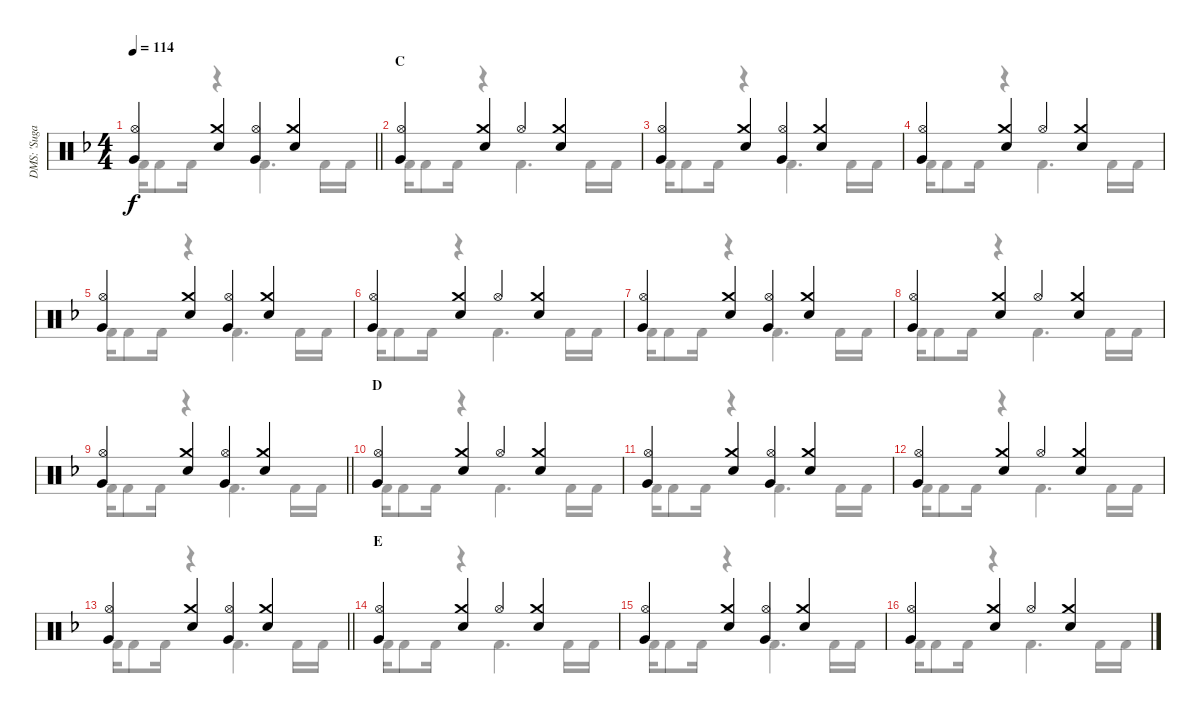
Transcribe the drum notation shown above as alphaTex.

\track ("DMS: 'Sugarfoot' Moffett" "DMS: 'Suga") {instrument percussion}
\staff {score}
\articulation defaults
\voice
\ts (4 4)
\tempo 114
\clef neutral
\barLineRight lightlight
\ks f
("Hi-Hat (open)" "Very Low Tom (hit)").4{dy f} ("Crash medium (hit)" "Snare (hit) 2").4 ("Hi-Hat (open)" "Very Low Tom (hit)").4 ("Crash medium (hit)" "Snare (hit) 2").4 |
\section ("" "C")
("Hi-Hat (open)" "Very Low Tom (hit)").4 ("Crash medium (hit)" "Snare (hit) 2").4 "Hi-Hat (open)".4 ("Crash medium (hit)" "Snare (hit) 2").4 |
("Hi-Hat (open)" "Very Low Tom (hit)").4 ("Crash medium (hit)" "Snare (hit) 2").4 ("Hi-Hat (open)" "Very Low Tom (hit)").4 ("Crash medium (hit)" "Snare (hit) 2").4 |
("Hi-Hat (open)" "Very Low Tom (hit)").4 ("Crash medium (hit)" "Snare (hit) 2").4 "Hi-Hat (open)".4 ("Crash medium (hit)" "Snare (hit) 2").4 |
("Hi-Hat (open)" "Very Low Tom (hit)").4 ("Crash medium (hit)" "Snare (hit) 2").4 ("Hi-Hat (open)" "Very Low Tom (hit)").4 ("Crash medium (hit)" "Snare (hit) 2").4 |
("Hi-Hat (open)" "Very Low Tom (hit)").4 ("Crash medium (hit)" "Snare (hit) 2").4 "Hi-Hat (open)".4 ("Crash medium (hit)" "Snare (hit) 2").4 |
("Hi-Hat (open)" "Very Low Tom (hit)").4 ("Crash medium (hit)" "Snare (hit) 2").4 ("Hi-Hat (open)" "Very Low Tom (hit)").4 ("Crash medium (hit)" "Snare (hit) 2").4 |
("Hi-Hat (open)" "Very Low Tom (hit)").4 ("Crash medium (hit)" "Snare (hit) 2").4 "Hi-Hat (open)".4 ("Crash medium (hit)" "Snare (hit) 2").4 |
\barLineRight lightlight
("Hi-Hat (open)" "Very Low Tom (hit)").4 ("Crash medium (hit)" "Snare (hit) 2").4 ("Hi-Hat (open)" "Very Low Tom (hit)").4 ("Crash medium (hit)" "Snare (hit) 2").4 |
\section ("" "D")
("Hi-Hat (open)" "Very Low Tom (hit)").4 ("Crash medium (hit)" "Snare (hit) 2").4 "Hi-Hat (open)".4 ("Crash medium (hit)" "Snare (hit) 2").4 |
("Hi-Hat (open)" "Very Low Tom (hit)").4 ("Crash medium (hit)" "Snare (hit) 2").4 ("Hi-Hat (open)" "Very Low Tom (hit)").4 ("Crash medium (hit)" "Snare (hit) 2").4 |
("Hi-Hat (open)" "Very Low Tom (hit)").4 ("Crash medium (hit)" "Snare (hit) 2").4 "Hi-Hat (open)".4 ("Crash medium (hit)" "Snare (hit) 2").4 |
\barLineRight lightlight
("Hi-Hat (open)" "Very Low Tom (hit)").4 ("Crash medium (hit)" "Snare (hit) 2").4 ("Hi-Hat (open)" "Very Low Tom (hit)").4 ("Crash medium (hit)" "Snare (hit) 2").4 |
\section ("" "E")
("Hi-Hat (open)" "Very Low Tom (hit)").4 ("Crash medium (hit)" "Snare (hit) 2").4 "Hi-Hat (open)".4 ("Crash medium (hit)" "Snare (hit) 2").4 |
("Hi-Hat (open)" "Very Low Tom (hit)").4 ("Crash medium (hit)" "Snare (hit) 2").4 ("Hi-Hat (open)" "Very Low Tom (hit)").4 ("Crash medium (hit)" "Snare (hit) 2").4 |
("Hi-Hat (open)" "Very Low Tom (hit)").4 ("Crash medium (hit)" "Snare (hit) 2").4 "Hi-Hat (open)".4 ("Crash medium (hit)" "Snare (hit) 2").4
\voice
\clef neutral
\ottava regular
\simile none
\barLineRight lightlight
\ks f "Kick (hit) 2".16{dy f} "Kick (hit) 2".8 "Kick (hit) 2".16
r.4 "Kick (hit) 2".4{d} "Kick (hit) 2".16 "Kick (hit) 2".16 |
"Kick (hit) 2".16 "Kick (hit) 2".8 "Kick (hit) 2".16 r.4 "Kick (hit) 2".4{d} "Kick (hit) 2".16 "Kick (hit) 2".16 |
"Kick (hit) 2".16 "Kick (hit) 2".8 "Kick (hit) 2".16 r.4 "Kick (hit) 2".4{d} "Kick (hit) 2".16 "Kick (hit) 2".16 |
"Kick (hit) 2".16 "Kick (hit) 2".8 "Kick (hit) 2".16 r.4 "Kick (hit) 2".4{d} "Kick (hit) 2".16 "Kick (hit) 2".16 |
"Kick (hit) 2".16 "Kick (hit) 2".8 "Kick (hit) 2".16 r.4 "Kick (hit) 2".4{d} "Kick (hit) 2".16 "Kick (hit) 2".16 |
"Kick (hit) 2".16 "Kick (hit) 2".8 "Kick (hit) 2".16 r.4 "Kick (hit) 2".4{d} "Kick (hit) 2".16 "Kick (hit) 2".16 |
"Kick (hit) 2".16 "Kick (hit) 2".8 "Kick (hit) 2".16 r.4 "Kick (hit) 2".4{d} "Kick (hit) 2".16 "Kick (hit) 2".16 |
"Kick (hit) 2".16 "Kick (hit) 2".8 "Kick (hit) 2".16 r.4 "Kick (hit) 2".4{d} "Kick (hit) 2".16 "Kick (hit) 2".16 |
\barLineRight lightlight "Kick (hit) 2".16 "Kick (hit) 2".8 "Kick (hit) 2".16
r.4 "Kick (hit) 2".4{d} "Kick (hit) 2".16 "Kick (hit) 2".16 |
"Kick (hit) 2".16 "Kick (hit) 2".8 "Kick (hit) 2".16 r.4 "Kick (hit) 2".4{d} "Kick (hit) 2".16 "Kick (hit) 2".16 |
"Kick (hit) 2".16 "Kick (hit) 2".8 "Kick (hit) 2".16 r.4 "Kick (hit) 2".4{d} "Kick (hit) 2".16 "Kick (hit) 2".16 |
"Kick (hit) 2".16 "Kick (hit) 2".8 "Kick (hit) 2".16 r.4 "Kick (hit) 2".4{d} "Kick (hit) 2".16 "Kick (hit) 2".16 |
\barLineRight lightlight "Kick (hit) 2".16 "Kick (hit) 2".8 "Kick (hit) 2".16
r.4 "Kick (hit) 2".4{d} "Kick (hit) 2".16 "Kick (hit) 2".16 |
"Kick (hit) 2".16 "Kick (hit) 2".8 "Kick (hit) 2".16 r.4 "Kick (hit) 2".4{d} "Kick (hit) 2".16 "Kick (hit) 2".16 |
"Kick (hit) 2".16 "Kick (hit) 2".8 "Kick (hit) 2".16 r.4 "Kick (hit) 2".4{d} "Kick (hit) 2".16 "Kick (hit) 2".16 |
"Kick (hit) 2".16 "Kick (hit) 2".8 "Kick (hit) 2".16 r.4 "Kick (hit) 2".4{d} "Kick (hit) 2".16 "Kick (hit) 2".16
